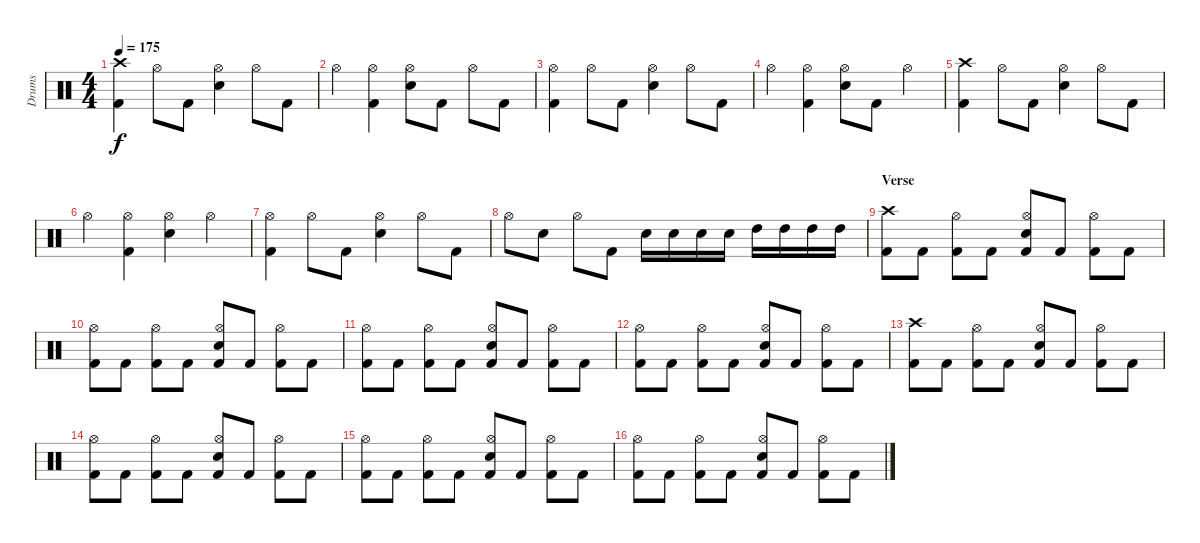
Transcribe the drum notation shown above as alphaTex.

\track ("Drums" "Drums") {instrument percussion}
\staff {score}
\articulation defaults
\ts (4 4)
\tempo 175
\clef neutral
\ks c
("Crash high (hit)" "Kick (hit) 2").4{dy f} "Hi-Hat (open)".8 "Kick (hit) 2".8 ("Hi-Hat (open)" "Electric Snare (hit)").4 "Hi-Hat (open)".8 "Kick (hit) 2".8 |
"Hi-Hat (open)".4 ("Hi-Hat (open)" "Kick (hit) 2").4 ("Hi-Hat (open)" "Electric Snare (hit)").8 "Kick (hit) 2".8 "Hi-Hat (open)".8 "Kick (hit) 2".8 |
("Hi-Hat (open)" "Kick (hit) 2").4 "Hi-Hat (open)".8 "Kick (hit) 2".8 ("Hi-Hat (open)" "Electric Snare (hit)").4 "Hi-Hat (open)".8 "Kick (hit) 2".8 |
"Hi-Hat (open)".4 ("Hi-Hat (open)" "Kick (hit) 2").4 ("Hi-Hat (open)" "Electric Snare (hit)").8 "Kick (hit) 2".8 "Hi-Hat (open)".4 |
("Crash high (hit)" "Kick (hit) 2").4 "Hi-Hat (open)".8 "Kick (hit) 2".8 ("Hi-Hat (open)" "Electric Snare (hit)").4 "Hi-Hat (open)".8 "Kick (hit) 2".8 |
"Hi-Hat (open)".4 ("Hi-Hat (open)" "Kick (hit) 2").4 ("Hi-Hat (open)" "Electric Snare (hit)").4 "Hi-Hat (open)".4 |
("Hi-Hat (open)" "Kick (hit) 2").4 "Hi-Hat (open)".8 "Kick (hit) 2".8 ("Hi-Hat (open)" "Electric Snare (hit)").4 "Hi-Hat (open)".8 "Kick (hit) 2".8 |
"Hi-Hat (open)".8 "Electric Snare (hit)".8 "Hi-Hat (open)".8 "Kick (hit) 2".8 "Electric Snare (hit)".16 "Electric Snare (hit)".16 "Electric Snare (hit)".16 "Electric Snare (hit)".16 "High Tom (hit)".16 "High Tom (hit)".16 "High Tom (hit)".16 "High Tom (hit)".16 |
\section ("" "Verse")
("Crash high (hit)" "Kick (hit) 2").8 "Kick (hit) 2".8 ("Hi-Hat (open)" "Kick (hit) 2").8 "Kick (hit) 2".8 ("Hi-Hat (open)" "Electric Snare (hit)" "Kick (hit) 2").8 "Kick (hit) 2".8 ("Hi-Hat (open)" "Kick (hit) 2").8 "Kick (hit) 2".8 |
("Hi-Hat (open)" "Kick (hit) 2").8 "Kick (hit) 2".8 ("Hi-Hat (open)" "Kick (hit) 2").8 "Kick (hit) 2".8 ("Hi-Hat (open)" "Electric Snare (hit)" "Kick (hit) 2").8 "Kick (hit) 2".8 ("Hi-Hat (open)" "Kick (hit) 2").8 "Kick (hit) 2".8 |
("Hi-Hat (open)" "Kick (hit) 2").8 "Kick (hit) 2".8 ("Hi-Hat (open)" "Kick (hit) 2").8 "Kick (hit) 2".8 ("Hi-Hat (open)" "Electric Snare (hit)" "Kick (hit) 2").8 "Kick (hit) 2".8 ("Hi-Hat (open)" "Kick (hit) 2").8 "Kick (hit) 2".8 |
("Hi-Hat (open)" "Kick (hit) 2").8 "Kick (hit) 2".8 ("Hi-Hat (open)" "Kick (hit) 2").8 "Kick (hit) 2".8 ("Hi-Hat (open)" "Electric Snare (hit)" "Kick (hit) 2").8 "Kick (hit) 2".8 ("Hi-Hat (open)" "Kick (hit) 2").8 "Kick (hit) 2".8 |
("Crash high (hit)" "Kick (hit) 2").8 "Kick (hit) 2".8 ("Hi-Hat (open)" "Kick (hit) 2").8 "Kick (hit) 2".8 ("Hi-Hat (open)" "Electric Snare (hit)" "Kick (hit) 2").8 "Kick (hit) 2".8 ("Hi-Hat (open)" "Kick (hit) 2").8 "Kick (hit) 2".8 |
("Hi-Hat (open)" "Kick (hit) 2").8 "Kick (hit) 2".8 ("Hi-Hat (open)" "Kick (hit) 2").8 "Kick (hit) 2".8 ("Hi-Hat (open)" "Electric Snare (hit)" "Kick (hit) 2").8 "Kick (hit) 2".8 ("Hi-Hat (open)" "Kick (hit) 2").8 "Kick (hit) 2".8 |
("Hi-Hat (open)" "Kick (hit) 2").8 "Kick (hit) 2".8 ("Hi-Hat (open)" "Kick (hit) 2").8 "Kick (hit) 2".8 ("Hi-Hat (open)" "Electric Snare (hit)" "Kick (hit) 2").8 "Kick (hit) 2".8 ("Hi-Hat (open)" "Kick (hit) 2").8 "Kick (hit) 2".8 |
("Hi-Hat (open)" "Kick (hit) 2").8 "Kick (hit) 2".8 ("Hi-Hat (open)" "Kick (hit) 2").8 "Kick (hit) 2".8 ("Hi-Hat (open)" "Electric Snare (hit)" "Kick (hit) 2").8 "Kick (hit) 2".8 ("Hi-Hat (open)" "Kick (hit) 2").8 "Kick (hit) 2".8
